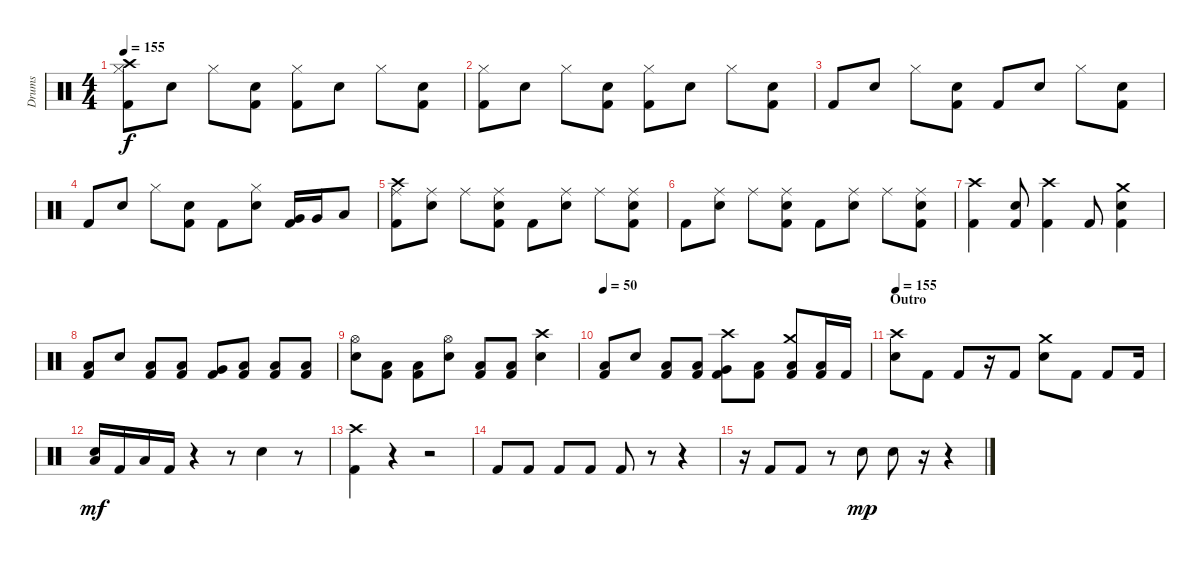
\track ("Drums" "Drums") {instrument percussion}
\staff {score}
\articulation defaults
\ts (4 4)
\tempo 155
\clef neutral
\ks c
("Crash high (hit)" "Hi-Hat (closed)" "Kick (hit) 2").8{dy f} "Electric Snare (hit)".8 "Hi-Hat (closed)".8 ("Electric Snare (hit)" "Kick (hit) 2").8 ("Hi-Hat (closed)" "Kick (hit) 2").8 "Electric Snare (hit)".8 "Hi-Hat (closed)".8 ("Electric Snare (hit)" "Kick (hit) 2").8 |
("Hi-Hat (closed)" "Kick (hit) 2").8 "Electric Snare (hit)".8 "Hi-Hat (closed)".8 ("Electric Snare (hit)" "Kick (hit) 2").8 ("Hi-Hat (closed)" "Kick (hit) 2").8 "Electric Snare (hit)".8 "Hi-Hat (closed)".8 ("Electric Snare (hit)" "Kick (hit) 2").8 |
"Kick (hit) 2".8 "Electric Snare (hit)".8 "Hi-Hat (closed)".8 ("Electric Snare (hit)" "Kick (hit) 2").8 "Kick (hit) 2".8 "Electric Snare (hit)".8 "Hi-Hat (closed)".8 ("Electric Snare (hit)" "Kick (hit) 2").8 |
"Kick (hit) 2".8 "Electric Snare (hit)".8 "Hi-Hat (closed)".8 ("Electric Snare (hit)" "Kick (hit) 2").8 "Kick (hit) 2".8 ("Hi-Hat (closed)" "Electric Snare (hit)").8 ("Very Low Tom (hit)" "Kick (hit) 2").16 "Very Low Tom (hit)".16 "Low Floor Tom (hit)".8 |
("Crash high (hit)" "Ride (middle)" "Kick (hit) 2").8 ("Ride (middle)" "Electric Snare (hit)").8 "Ride (middle)".8 ("Ride (middle)" "Electric Snare (hit)" "Kick (hit) 2").8 "Kick (hit) 2".8 ("Ride (middle)" "Electric Snare (hit)").8 "Ride (middle)".8 ("Ride (middle)" "Electric Snare (hit)" "Kick (hit) 2").8 |
"Kick (hit) 2".8 ("Ride (middle)" "Electric Snare (hit)").8 "Ride (middle)".8 ("Ride (middle)" "Electric Snare (hit)" "Kick (hit) 2").8 "Kick (hit) 2".8 ("Ride (middle)" "Electric Snare (hit)").8 "Ride (middle)".8 ("Ride (middle)" "Electric Snare (hit)" "Kick (hit) 2").8 |
("Crash high (hit)" "Kick (hit) 2").4 ("Electric Snare (hit)" "Kick (hit) 2").8 ("Crash high (hit)" "Kick (hit) 2").4 "Kick (hit) 2".8 ("Crash medium (hit)" "Electric Snare (hit)" "Kick (hit) 2").4 |
("Low Floor Tom (hit)" "Kick (hit) 2").8 "Electric Snare (hit)".8 ("Low Floor Tom (hit)" "Kick (hit) 2").8 ("Low Floor Tom (hit)" "Kick (hit) 2").8 ("Very Low Tom (hit)" "Kick (hit) 2").8 ("Low Floor Tom (hit)" "Kick (hit) 2").8 ("Low Tom (hit)" "Kick (hit) 2").8 ("Low Floor Tom (hit)" "Kick (hit) 2").8 |
("Hi-Hat (open)" "Electric Snare (hit)").8 ("Low Floor Tom (hit)" "Kick (hit) 2").8 ("Low Floor Tom (hit)" "Kick (hit) 2").8 ("Hi-Hat (open)" "Electric Snare (hit)").8 ("Low Floor Tom (hit)" "Kick (hit) 2").8 ("Low Floor Tom (hit)" "Kick (hit) 2").8 ("Crash high (hit)" "Electric Snare (hit)").4 |
\tempo 50
("Low Floor Tom (hit)" "Kick (hit) 2").8 "Electric Snare (hit)".8 ("Low Floor Tom (hit)" "Kick (hit) 2").8 ("Low Floor Tom (hit)" "Kick (hit) 2").8 ("Crash high (hit)" "Very Low Tom (hit)" "Kick (hit) 2").8 ("Low Floor Tom (hit)" "Kick (hit) 2").8 ("Crash medium (hit)" "Low Tom (hit)" "Kick (hit) 2").8 ("Low Floor Tom (hit)" "Kick (hit) 2").16 "Kick (hit) 2".16 |
\section ("" "Outro")
\tempo 155
("Crash high (hit)" "Electric Snare (hit)").8 "Kick (hit) 2".8 "Kick (hit) 2".8 r.16 "Kick (hit) 2".8 ("Crash medium (hit)" "Electric Snare (hit)").8 "Kick (hit) 2".8 "Kick (hit) 2".8 "Kick (hit) 2".16 |
("Electric Snare (hit)" "Low Floor Tom (hit)").16{dy mf} "Kick (hit) 2".16 "Low Floor Tom (hit)".16 "Kick (hit) 2".16 r.4 r.8 "Electric Snare (hit)".4 r.8 |
("Crash high (hit)" "Kick (hit) 2").4 r.4 r.2 |
"Kick (hit) 2".8 "Kick (hit) 2".8 "Kick (hit) 2".8 "Kick (hit) 2".8 "Kick (hit) 2".8 r.8 r.4 |
r.16 "Kick (hit) 2".8 "Kick (hit) 2".8 r.8 "Electric Snare (hit)".8{dy mp} "Metronome (bell)".8 r.16 r.4
